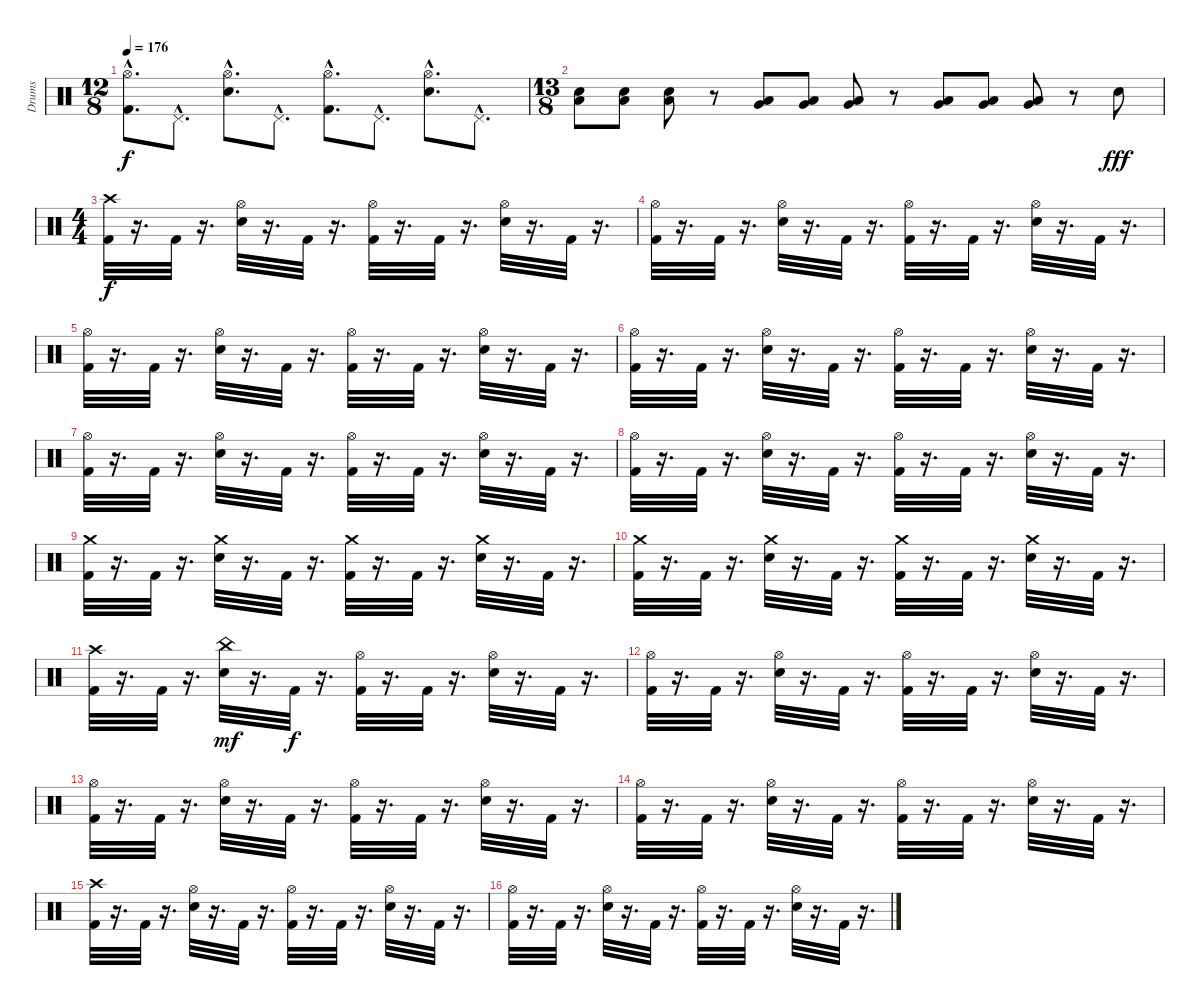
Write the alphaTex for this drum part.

\track ("Drums" "Drums") {instrument percussion}
\staff {score}
\articulation defaults
\ts (12 8)
\tempo 176
\clef neutral
\ks c
("Hi-Hat (open)"{hac} "Kick (hit) 2"{hac}).8{d dy f} "Pedal Hi-Hat (hit)"{hac}.8{d} ("Hi-Hat (open)"{hac} "Snare (hit) 2"{hac}).8{d} "Pedal Hi-Hat (hit)"{hac}.8{d} ("Hi-Hat (open)"{hac} "Kick (hit) 2"{hac}).8{d} "Pedal Hi-Hat (hit)"{hac}.8{d} ("Hi-Hat (open)"{hac} "Snare (hit) 2"{hac}).8{d} "Pedal Hi-Hat (hit)"{hac}.8{d} |
\ts (13 8)
("Low Floor Tom (hit)" "Snare (hit) 2").8 ("Low Floor Tom (hit)" "Snare (hit) 2").8 ("Low Floor Tom (hit)" "Snare (hit) 2").8 r.8 ("Low Tom (hit)" "Very Low Tom (hit)").8 ("Low Tom (hit)" "Very Low Tom (hit)").8 ("Low Tom (hit)" "Very Low Tom (hit)").8 r.8 ("Very Low Tom (hit)" "Low Tom (hit)").8 ("Very Low Tom (hit)" "Low Tom (hit)").8 ("Very Low Tom (hit)" "Low Tom (hit)").8 r.8 "Snare (hit) 2".8{dy fff} |
\ts (4 4)
("Crash high (hit)" "Kick (hit) 2").32{dy f} r.16{d} "Kick (hit) 2".32 r.16{d} ("Hi-Hat (open)" "Snare (hit) 2").32 r.16{d} "Kick (hit) 2".32 r.16{d} ("Hi-Hat (open)" "Kick (hit) 2").32 r.16{d} "Kick (hit) 2".32 r.16{d} ("Hi-Hat (open)" "Snare (hit) 2").32 r.16{d} "Kick (hit) 2".32 r.16{d} |
("Hi-Hat (open)" "Kick (hit) 2").32 r.16{d} "Kick (hit) 2".32 r.16{d} ("Snare (hit) 2" "Hi-Hat (open)").32 r.16{d} "Kick (hit) 2".32 r.16{d} ("Kick (hit) 2" "Hi-Hat (open)").32 r.16{d} "Kick (hit) 2".32 r.16{d} ("Snare (hit) 2" "Hi-Hat (open)").32 r.16{d} "Kick (hit) 2".32 r.16{d} |
("Hi-Hat (open)" "Kick (hit) 2").32 r.16{d} "Kick (hit) 2".32 r.16{d} ("Snare (hit) 2" "Hi-Hat (open)").32 r.16{d} "Kick (hit) 2".32 r.16{d} ("Kick (hit) 2" "Hi-Hat (open)").32 r.16{d} "Kick (hit) 2".32 r.16{d} ("Snare (hit) 2" "Hi-Hat (open)").32 r.16{d} "Kick (hit) 2".32 r.16{d} |
("Hi-Hat (open)" "Kick (hit) 2").32 r.16{d} "Kick (hit) 2".32 r.16{d} ("Snare (hit) 2" "Hi-Hat (open)").32 r.16{d} "Kick (hit) 2".32 r.16{d} ("Kick (hit) 2" "Hi-Hat (open)").32 r.16{d} "Kick (hit) 2".32 r.16{d} ("Snare (hit) 2" "Hi-Hat (open)").32 r.16{d} "Kick (hit) 2".32 r.16{d} |
("Hi-Hat (open)" "Kick (hit) 2").32 r.16{d} "Kick (hit) 2".32 r.16{d} ("Snare (hit) 2" "Hi-Hat (open)").32 r.16{d} "Kick (hit) 2".32 r.16{d} ("Kick (hit) 2" "Hi-Hat (open)").32 r.16{d} "Kick (hit) 2".32 r.16{d} ("Snare (hit) 2" "Hi-Hat (open)").32 r.16{d} "Kick (hit) 2".32 r.16{d} |
("Hi-Hat (open)" "Kick (hit) 2").32 r.16{d} "Kick (hit) 2".32 r.16{d} ("Snare (hit) 2" "Hi-Hat (open)").32 r.16{d} "Kick (hit) 2".32 r.16{d} ("Kick (hit) 2" "Hi-Hat (open)").32 r.16{d} "Kick (hit) 2".32 r.16{d} ("Snare (hit) 2" "Hi-Hat (open)").32 r.16{d} "Kick (hit) 2".32 r.16{d} |
("Crash medium (hit)" "Kick (hit) 2").32 r.16{d} "Kick (hit) 2".32 r.16{d} ("Crash medium (hit)" "Snare (hit) 2").32 r.16{d} "Kick (hit) 2".32 r.16{d} ("Crash medium (hit)" "Kick (hit) 2").32 r.16{d} "Kick (hit) 2".32 r.16{d} ("Crash medium (hit)" "Snare (hit) 2").32 r.16{d} "Kick (hit) 2".32 r.16{d} |
("Crash medium (hit)" "Kick (hit) 2").32 r.16{d} "Kick (hit) 2".32 r.16{d} ("Crash medium (hit)" "Snare (hit) 2").32 r.16{d} "Kick (hit) 2".32 r.16{d} ("Crash medium (hit)" "Kick (hit) 2").32 r.16{d} "Kick (hit) 2".32 r.16{d} ("Crash medium (hit)" "Snare (hit) 2").32 r.16{d} "Kick (hit) 2".32 r.16{d} |
("Crash high (hit)" "Kick (hit) 2").32 r.16{d} "Kick (hit) 2".32 r.16{d} ("Snare (hit) 2" "China (hit)").32{dy mf} r.16{d} "Kick (hit) 2".32{dy f} r.16{d} ("Kick (hit) 2" "Hi-Hat (open)").32 r.16{d} "Kick (hit) 2".32 r.16{d} ("Snare (hit) 2" "Hi-Hat (open)").32 r.16{d} "Kick (hit) 2".32 r.16{d} |
("Hi-Hat (open)" "Kick (hit) 2").32 r.16{d} "Kick (hit) 2".32 r.16{d} ("Snare (hit) 2" "Hi-Hat (open)").32 r.16{d} "Kick (hit) 2".32 r.16{d} ("Kick (hit) 2" "Hi-Hat (open)").32 r.16{d} "Kick (hit) 2".32 r.16{d} ("Snare (hit) 2" "Hi-Hat (open)").32 r.16{d} "Kick (hit) 2".32 r.16{d} |
("Hi-Hat (open)" "Kick (hit) 2").32 r.16{d} "Kick (hit) 2".32 r.16{d} ("Snare (hit) 2" "Hi-Hat (open)").32 r.16{d} "Kick (hit) 2".32 r.16{d} ("Kick (hit) 2" "Hi-Hat (open)").32 r.16{d} "Kick (hit) 2".32 r.16{d} ("Snare (hit) 2" "Hi-Hat (open)").32 r.16{d} "Kick (hit) 2".32 r.16{d} |
("Hi-Hat (open)" "Kick (hit) 2").32 r.16{d} "Kick (hit) 2".32 r.16{d} ("Snare (hit) 2" "Hi-Hat (open)").32 r.16{d} "Kick (hit) 2".32 r.16{d} ("Kick (hit) 2" "Hi-Hat (open)").32 r.16{d} "Kick (hit) 2".32 r.16{d} ("Snare (hit) 2" "Hi-Hat (open)").32 r.16{d} "Kick (hit) 2".32 r.16{d} |
("Crash high (hit)" "Kick (hit) 2").32 r.16{d} "Kick (hit) 2".32 r.16{d} ("Snare (hit) 2" "Hi-Hat (open)").32 r.16{d} "Kick (hit) 2".32 r.16{d} ("Kick (hit) 2" "Hi-Hat (open)").32 r.16{d} "Kick (hit) 2".32 r.16{d} ("Snare (hit) 2" "Hi-Hat (open)").32 r.16{d} "Kick (hit) 2".32 r.16{d} |
("Hi-Hat (open)" "Kick (hit) 2").32 r.16{d} "Kick (hit) 2".32 r.16{d} ("Snare (hit) 2" "Hi-Hat (open)").32 r.16{d} "Kick (hit) 2".32 r.16{d} ("Kick (hit) 2" "Hi-Hat (open)").32 r.16{d} "Kick (hit) 2".32 r.16{d} ("Snare (hit) 2" "Hi-Hat (open)").32 r.16{d} "Kick (hit) 2".32 r.16{d}
